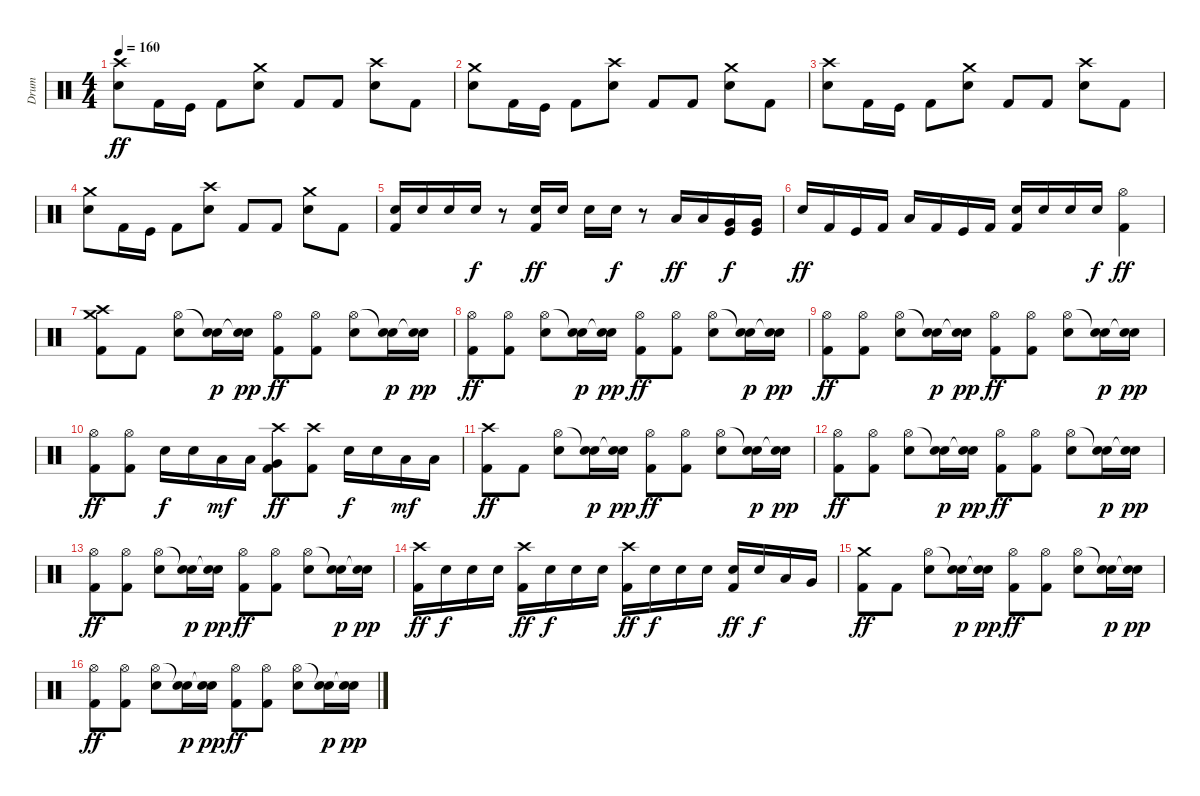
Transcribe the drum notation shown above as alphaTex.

\track ("Drum" "Drum") {instrument percussion}
\staff {score}
\articulation defaults
\ts (4 4)
\tempo 160
\clef neutral
\ks c
("Crash high (hit)" "Electric Snare (hit)").8{dy ff} "Kick (hit) 2".16 "Kick (hit)".16 "Kick (hit) 2".8 ("Crash medium (hit)" "Electric Snare (hit)").8 "Kick (hit) 2".8 "Kick (hit) 2".8 ("Crash high (hit)" "Electric Snare (hit)").8 "Kick (hit) 2".8 |
("Crash medium (hit)" "Electric Snare (hit)").8 "Kick (hit) 2".16 "Kick (hit)".16 "Kick (hit) 2".8 ("Crash high (hit)" "Electric Snare (hit)").8 "Kick (hit) 2".8 "Kick (hit) 2".8 ("Crash medium (hit)" "Electric Snare (hit)").8 "Kick (hit) 2".8 |
("Crash high (hit)" "Electric Snare (hit)").8 "Kick (hit) 2".16 "Kick (hit)".16 "Kick (hit) 2".8 ("Crash medium (hit)" "Electric Snare (hit)").8 "Kick (hit) 2".8 "Kick (hit) 2".8 ("Crash high (hit)" "Electric Snare (hit)").8 "Kick (hit) 2".8 |
("Crash medium (hit)" "Electric Snare (hit)").8 "Kick (hit) 2".16 "Kick (hit)".16 "Kick (hit) 2".8 ("Crash high (hit)" "Electric Snare (hit)").8 "Kick (hit) 2".8 "Kick (hit) 2".8 ("Crash medium (hit)" "Electric Snare (hit)").8 "Kick (hit) 2".8 |
("Electric Snare (hit)" "Kick (hit) 2").16 "Electric Snare (hit)".16 "Electric Snare (hit)".16 "Electric Snare (hit)".16{dy f} r.8 ("Electric Snare (hit)" "Kick (hit) 2").16{dy ff} "Electric Snare (hit)".16 "Electric Snare (hit)".16 "Electric Snare (hit)".16{dy f} r.8 "Low Tom (hit)".16{dy ff} "Low Tom (hit)".16 ("Very Low Tom (hit)" "Kick (hit)").16{dy f} ("Very Low Tom (hit)" "Kick (hit)").16 |
"Electric Snare (hit)".16{dy ff} "Kick (hit) 2".16 "Kick (hit)".16 "Kick (hit) 2".16 "Low Tom (hit)".16 "Kick (hit) 2".16 "Kick (hit)".16 "Kick (hit) 2".16 ("Electric Snare (hit)" "Kick (hit) 2").16 "Electric Snare (hit)".16 "Electric Snare (hit)".16 "Electric Snare (hit)".16{dy f} ("Hi-Hat (open)" "Kick (hit) 2").4{dy ff} |
("Crash high (hit)" "Crash medium (hit)" "Kick (hit) 2").8 "Kick (hit) 2".8 ("Electric Snare (hit)" "Hi-Hat (open)").8 ("Electric Snare (hit)" "Snare (hit)"{t}).16{dy p} ("Electric Snare (hit)" "Snare (hit)"{t}).16{dy pp} ("Hi-Hat (open)" "Kick (hit) 2").8{dy ff} ("Hi-Hat (open)" "Kick (hit) 2").8 ("Electric Snare (hit)" "Hi-Hat (open)").8 ("Electric Snare (hit)" "Snare (hit)"{t}).16{dy p} ("Electric Snare (hit)" "Snare (hit)"{t}).16{dy pp} |
("Hi-Hat (open)" "Kick (hit) 2").8{dy ff} ("Hi-Hat (open)" "Kick (hit) 2").8 ("Electric Snare (hit)" "Hi-Hat (open)").8 ("Electric Snare (hit)" "Snare (hit)"{t}).16{dy p} ("Electric Snare (hit)" "Snare (hit)"{t}).16{dy pp} ("Hi-Hat (open)" "Kick (hit) 2").8{dy ff} ("Hi-Hat (open)" "Kick (hit) 2").8 ("Electric Snare (hit)" "Hi-Hat (open)").8 ("Electric Snare (hit)" "Snare (hit)"{t}).16{dy p} ("Electric Snare (hit)" "Snare (hit)"{t}).16{dy pp} |
("Hi-Hat (open)" "Kick (hit) 2").8{dy ff} ("Hi-Hat (open)" "Kick (hit) 2").8 ("Electric Snare (hit)" "Hi-Hat (open)").8 ("Electric Snare (hit)" "Snare (hit)"{t}).16{dy p} ("Electric Snare (hit)" "Snare (hit)"{t}).16{dy pp} ("Hi-Hat (open)" "Kick (hit) 2").8{dy ff} ("Hi-Hat (open)" "Kick (hit) 2").8 ("Electric Snare (hit)" "Hi-Hat (open)").8 ("Electric Snare (hit)" "Snare (hit)"{t}).16{dy p} ("Electric Snare (hit)" "Snare (hit)"{t}).16{dy pp} |
("Hi-Hat (open)" "Kick (hit) 2").8{dy ff} ("Hi-Hat (open)" "Kick (hit) 2").8 "Electric Snare (hit)".16{dy f} "Electric Snare (hit)".16 "Low Tom (hit)".16{dy mf} "Low Tom (hit)".16 ("Crash high (hit)" "Very Low Tom (hit)" "Kick (hit) 2").8{dy ff} ("Crash high (hit)" "Kick (hit) 2").8 "Electric Snare (hit)".16{dy f} "Electric Snare (hit)".16 "Low Tom (hit)".16{dy mf} "Low Tom (hit)".16 |
("Crash high (hit)" "Kick (hit) 2").8{dy ff} "Kick (hit) 2".8 ("Electric Snare (hit)" "Hi-Hat (open)").8 ("Electric Snare (hit)" "Snare (hit)"{t}).16{dy p} ("Electric Snare (hit)" "Snare (hit)"{t}).16{dy pp} ("Hi-Hat (open)" "Kick (hit) 2").8{dy ff} ("Hi-Hat (open)" "Kick (hit) 2").8 ("Electric Snare (hit)" "Hi-Hat (open)").8 ("Electric Snare (hit)" "Snare (hit)"{t}).16{dy p} ("Electric Snare (hit)" "Snare (hit)"{t}).16{dy pp} |
("Hi-Hat (open)" "Kick (hit) 2").8{dy ff} ("Hi-Hat (open)" "Kick (hit) 2").8 ("Electric Snare (hit)" "Hi-Hat (open)").8 ("Electric Snare (hit)" "Snare (hit)"{t}).16{dy p} ("Electric Snare (hit)" "Snare (hit)"{t}).16{dy pp} ("Hi-Hat (open)" "Kick (hit) 2").8{dy ff} ("Hi-Hat (open)" "Kick (hit) 2").8 ("Electric Snare (hit)" "Hi-Hat (open)").8 ("Electric Snare (hit)" "Snare (hit)"{t}).16{dy p} ("Electric Snare (hit)" "Snare (hit)"{t}).16{dy pp} |
("Hi-Hat (open)" "Kick (hit) 2").8{dy ff} ("Hi-Hat (open)" "Kick (hit) 2").8 ("Electric Snare (hit)" "Hi-Hat (open)").8 ("Electric Snare (hit)" "Snare (hit)"{t}).16{dy p} ("Electric Snare (hit)" "Snare (hit)"{t}).16{dy pp} ("Hi-Hat (open)" "Kick (hit) 2").8{dy ff} ("Hi-Hat (open)" "Kick (hit) 2").8 ("Electric Snare (hit)" "Hi-Hat (open)").8 ("Electric Snare (hit)" "Snare (hit)"{t}).16{dy p} ("Electric Snare (hit)" "Snare (hit)"{t}).16{dy pp} |
("Crash high (hit)" "Kick (hit) 2").16{dy ff} "Electric Snare (hit)".16{dy f} "Electric Snare (hit)".16 "Electric Snare (hit)".16 ("Crash high (hit)" "Kick (hit) 2").16{dy ff} "Electric Snare (hit)".16{dy f} "Electric Snare (hit)".16 "Electric Snare (hit)".16 ("Crash high (hit)" "Kick (hit) 2").16{dy ff} "Electric Snare (hit)".16{dy f} "Electric Snare (hit)".16 "Electric Snare (hit)".16 ("Electric Snare (hit)" "Kick (hit) 2").16{dy ff} "Electric Snare (hit)".16{dy f} "Low Tom (hit)".16 "Very Low Tom (hit)".16 |
("Crash medium (hit)" "Kick (hit) 2").8{dy ff} "Kick (hit) 2".8 ("Electric Snare (hit)" "Hi-Hat (open)").8 ("Electric Snare (hit)" "Snare (hit)"{t}).16{dy p} ("Electric Snare (hit)" "Snare (hit)"{t}).16{dy pp} ("Hi-Hat (open)" "Kick (hit) 2").8{dy ff} ("Hi-Hat (open)" "Kick (hit) 2").8 ("Electric Snare (hit)" "Hi-Hat (open)").8 ("Electric Snare (hit)" "Snare (hit)"{t}).16{dy p} ("Electric Snare (hit)" "Snare (hit)"{t}).16{dy pp} |
("Hi-Hat (open)" "Kick (hit) 2").8{dy ff} ("Hi-Hat (open)" "Kick (hit) 2").8 ("Electric Snare (hit)" "Hi-Hat (open)").8 ("Electric Snare (hit)" "Snare (hit)"{t}).16{dy p} ("Electric Snare (hit)" "Snare (hit)"{t}).16{dy pp} ("Hi-Hat (open)" "Kick (hit) 2").8{dy ff} ("Hi-Hat (open)" "Kick (hit) 2").8 ("Electric Snare (hit)" "Hi-Hat (open)").8 ("Electric Snare (hit)" "Snare (hit)"{t}).16{dy p} ("Electric Snare (hit)" "Snare (hit)"{t}).16{dy pp}
